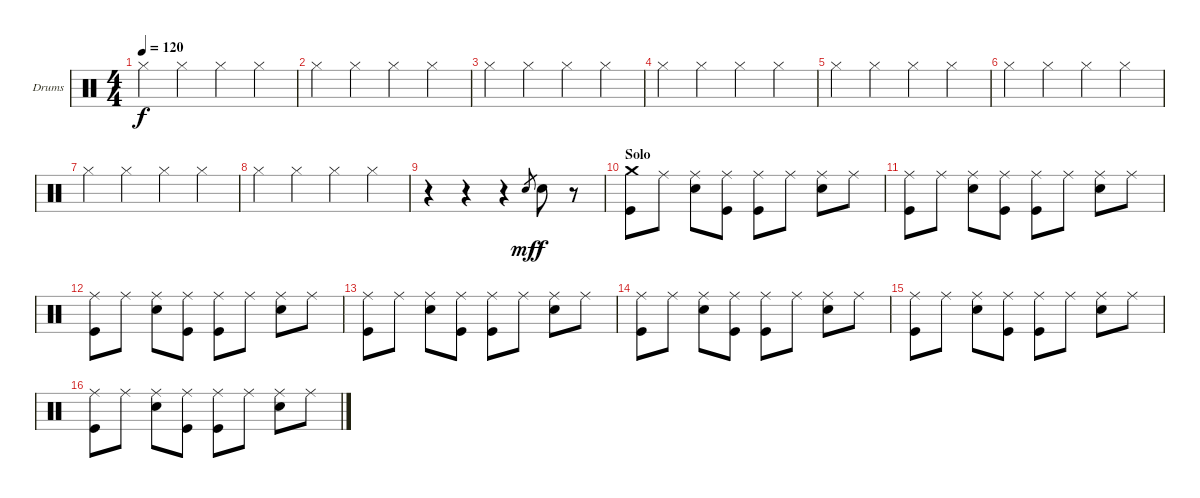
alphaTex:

\bracketExtendMode groupsimilarinstruments
\firstSystemTrackNameOrientation horizontal
\otherSystemsTrackNameOrientation horizontal
\track ("Drumkit" "Drums") {instrument percussion}
\staff {score}
\articulation defaults
\ts (4 4)
\tempo 120
\clef neutral
\ks c "Hi-Hat (closed)".4{dy f} "Hi-Hat (closed)".4 "Hi-Hat (closed)".4 "Hi-Hat (closed)".4
|
"Hi-Hat (closed)".4 "Hi-Hat (closed)".4 "Hi-Hat (closed)".4 "Hi-Hat (closed)".4 |
"Hi-Hat (closed)".4 "Hi-Hat (closed)".4 "Hi-Hat (closed)".4 "Hi-Hat (closed)".4 |
"Hi-Hat (closed)".4 "Hi-Hat (closed)".4 "Hi-Hat (closed)".4 "Hi-Hat (closed)".4 |
"Hi-Hat (closed)".4 "Hi-Hat (closed)".4 "Hi-Hat (closed)".4 "Hi-Hat (closed)".4 |
"Hi-Hat (closed)".4 "Hi-Hat (closed)".4 "Hi-Hat (closed)".4 "Hi-Hat (closed)".4 |
"Hi-Hat (closed)".4 "Hi-Hat (closed)".4 "Hi-Hat (closed)".4 "Hi-Hat (closed)".4 |
"Hi-Hat (closed)".4 "Hi-Hat (closed)".4 "Hi-Hat (closed)".4 "Hi-Hat (closed)".4 |
r.4 r.4 r.4 "Snare (hit) 2".8{gr dy mf} "Snare (hit) 2".8{dy f} r.8 |
\section ("" "Solo")
("Crash medium (hit)" "Kick (hit)").8 "Ride (middle)".8 ("Ride (middle)" "Snare (hit) 2").8 ("Ride (middle)" "Kick (hit)").8 ("Ride (middle)" "Kick (hit)").8 "Ride (middle)".8 ("Ride (middle)" "Snare (hit) 2").8 "Ride (middle)".8 |
("Ride (middle)" "Kick (hit)").8 "Ride (middle)".8 ("Ride (middle)" "Snare (hit) 2").8 ("Ride (middle)" "Kick (hit)").8 ("Ride (middle)" "Kick (hit)").8 "Ride (middle)".8 ("Ride (middle)" "Snare (hit) 2").8 "Ride (middle)".8 |
("Ride (middle)" "Kick (hit)").8 "Ride (middle)".8 ("Ride (middle)" "Snare (hit) 2").8 ("Ride (middle)" "Kick (hit)").8 ("Ride (middle)" "Kick (hit)").8 "Ride (middle)".8 ("Ride (middle)" "Snare (hit) 2").8 "Ride (middle)".8 |
("Ride (middle)" "Kick (hit)").8 "Ride (middle)".8 ("Ride (middle)" "Snare (hit) 2").8 ("Ride (middle)" "Kick (hit)").8 ("Ride (middle)" "Kick (hit)").8 "Ride (middle)".8 ("Ride (middle)" "Snare (hit) 2").8 "Ride (middle)".8 |
("Ride (middle)" "Kick (hit)").8 "Ride (middle)".8 ("Ride (middle)" "Snare (hit) 2").8 ("Ride (middle)" "Kick (hit)").8 ("Ride (middle)" "Kick (hit)").8 "Ride (middle)".8 ("Ride (middle)" "Snare (hit) 2").8 "Ride (middle)".8 |
("Ride (middle)" "Kick (hit)").8 "Ride (middle)".8 ("Ride (middle)" "Snare (hit) 2").8 ("Ride (middle)" "Kick (hit)").8 ("Ride (middle)" "Kick (hit)").8 "Ride (middle)".8 ("Ride (middle)" "Snare (hit) 2").8 "Ride (middle)".8 |
("Ride (middle)" "Kick (hit)").8 "Ride (middle)".8 ("Ride (middle)" "Snare (hit) 2").8 ("Ride (middle)" "Kick (hit)").8 ("Ride (middle)" "Kick (hit)").8 "Ride (middle)".8 ("Ride (middle)" "Snare (hit) 2").8 "Ride (middle)".8
